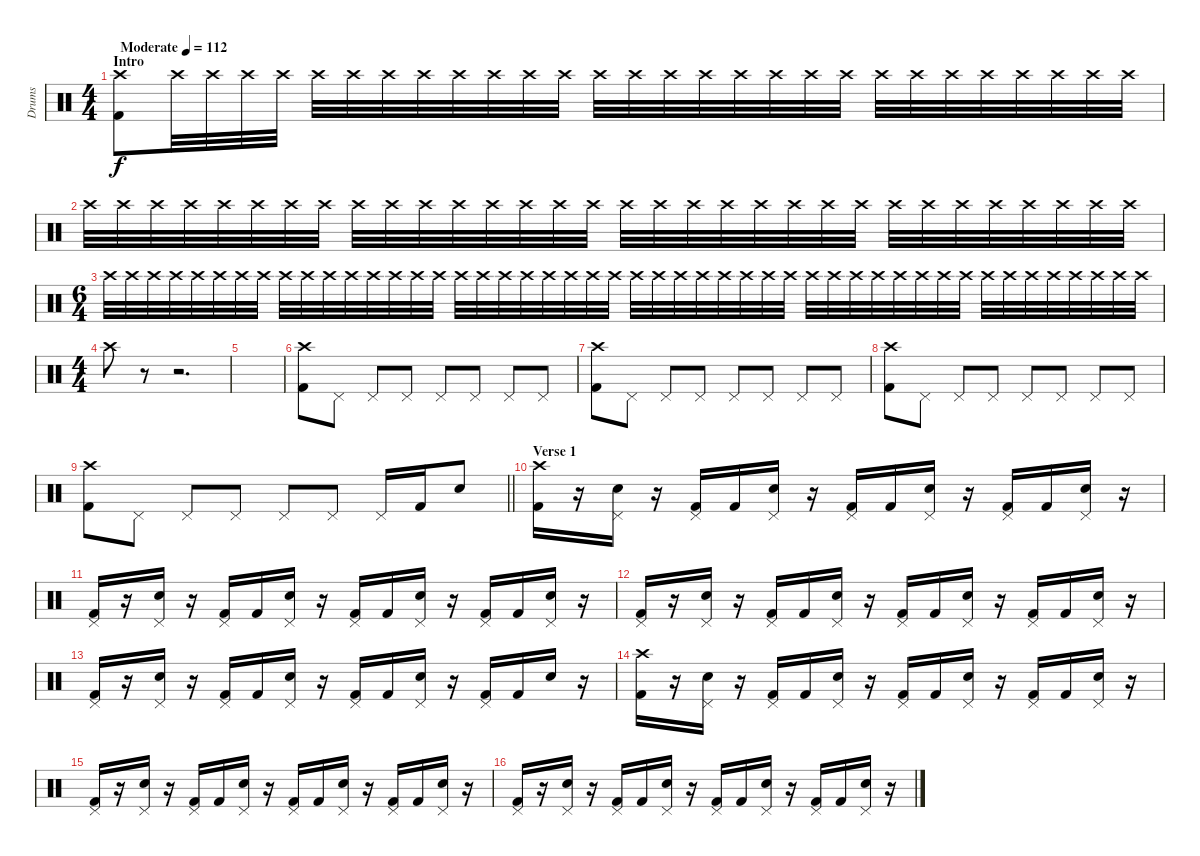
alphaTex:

\track ("Drums" "Drums") {instrument percussion}
\staff {score}
\articulation defaults
\ts (4 4)
\section ("" "Intro")
\tempo (112 "Moderate")
\clef neutral
\ks c
("Crash high (hit)" "Kick (hit) 2").8{dy f} "Crash high (hit)".32 "Crash high (hit)".32 "Crash high (hit)".32 "Crash high (hit)".32 "Crash high (hit)".32 "Crash high (hit)".32 "Crash high (hit)".32 "Crash high (hit)".32 "Crash high (hit)".32 "Crash high (hit)".32 "Crash high (hit)".32 "Crash high (hit)".32 "Crash high (hit)".32 "Crash high (hit)".32 "Crash high (hit)".32 "Crash high (hit)".32 "Crash high (hit)".32 "Crash high (hit)".32 "Crash high (hit)".32 "Crash high (hit)".32 "Crash high (hit)".32 "Crash high (hit)".32 "Crash high (hit)".32 "Crash high (hit)".32 "Crash high (hit)".32 "Crash high (hit)".32 "Crash high (hit)".32 "Crash high (hit)".32 |
"Crash high (hit)".32 "Crash high (hit)".32 "Crash high (hit)".32 "Crash high (hit)".32 "Crash high (hit)".32 "Crash high (hit)".32 "Crash high (hit)".32 "Crash high (hit)".32 "Crash high (hit)".32 "Crash high (hit)".32 "Crash high (hit)".32 "Crash high (hit)".32 "Crash high (hit)".32 "Crash high (hit)".32 "Crash high (hit)".32 "Crash high (hit)".32 "Crash high (hit)".32 "Crash high (hit)".32 "Crash high (hit)".32 "Crash high (hit)".32 "Crash high (hit)".32 "Crash high (hit)".32 "Crash high (hit)".32 "Crash high (hit)".32 "Crash high (hit)".32 "Crash high (hit)".32 "Crash high (hit)".32 "Crash high (hit)".32 "Crash high (hit)".32 "Crash high (hit)".32 "Crash high (hit)".32 "Crash high (hit)".32 |
\ts (6 4)
"Crash high (hit)".32 "Crash high (hit)".32 "Crash high (hit)".32 "Crash high (hit)".32 "Crash high (hit)".32 "Crash high (hit)".32 "Crash high (hit)".32 "Crash high (hit)".32 "Crash high (hit)".32 "Crash high (hit)".32 "Crash high (hit)".32 "Crash high (hit)".32 "Crash high (hit)".32 "Crash high (hit)".32 "Crash high (hit)".32 "Crash high (hit)".32 "Crash high (hit)".32 "Crash high (hit)".32 "Crash high (hit)".32 "Crash high (hit)".32 "Crash high (hit)".32 "Crash high (hit)".32 "Crash high (hit)".32 "Crash high (hit)".32 "Crash high (hit)".32 "Crash high (hit)".32 "Crash high (hit)".32 "Crash high (hit)".32 "Crash high (hit)".32 "Crash high (hit)".32 "Crash high (hit)".32 "Crash high (hit)".32 "Crash high (hit)".32 "Crash high (hit)".32 "Crash high (hit)".32 "Crash high (hit)".32 "Crash high (hit)".32 "Crash high (hit)".32 "Crash high (hit)".32 "Crash high (hit)".32 "Crash high (hit)".32 "Crash high (hit)".32 "Crash high (hit)".32 "Crash high (hit)".32 "Crash high (hit)".32 "Crash high (hit)".32 "Crash high (hit)".32 "Crash high (hit)".32 |
\ts (4 4)
"Crash high (hit)".8 r.8 r.2{d} |
|
("Crash high (hit)" "Kick (hit) 2").8 "Pedal Hi-Hat (hit)".8 "Pedal Hi-Hat (hit)".8 "Pedal Hi-Hat (hit)".8 "Pedal Hi-Hat (hit)".8 "Pedal Hi-Hat (hit)".8 "Pedal Hi-Hat (hit)".8 "Pedal Hi-Hat (hit)".8 |
("Crash high (hit)" "Kick (hit) 2").8 "Pedal Hi-Hat (hit)".8 "Pedal Hi-Hat (hit)".8 "Pedal Hi-Hat (hit)".8 "Pedal Hi-Hat (hit)".8 "Pedal Hi-Hat (hit)".8 "Pedal Hi-Hat (hit)".8 "Pedal Hi-Hat (hit)".8 |
("Crash high (hit)" "Kick (hit) 2").8 "Pedal Hi-Hat (hit)".8 "Pedal Hi-Hat (hit)".8 "Pedal Hi-Hat (hit)".8 "Pedal Hi-Hat (hit)".8 "Pedal Hi-Hat (hit)".8 "Pedal Hi-Hat (hit)".8 "Pedal Hi-Hat (hit)".8 |
\barLineRight lightlight
("Crash high (hit)" "Kick (hit) 2").8 "Pedal Hi-Hat (hit)".8 "Pedal Hi-Hat (hit)".8 "Pedal Hi-Hat (hit)".8 "Pedal Hi-Hat (hit)".8 "Pedal Hi-Hat (hit)".8 "Pedal Hi-Hat (hit)".16 "Kick (hit) 2".16 "Snare (hit) 2".8 |
\section ("" "Verse 1")
("Crash high (hit)" "Kick (hit) 2").16 r.16 ("Pedal Hi-Hat (hit)" "Snare (hit) 2").16 r.16 ("Pedal Hi-Hat (hit)" "Kick (hit) 2").16 "Kick (hit) 2".16 ("Pedal Hi-Hat (hit)" "Snare (hit) 2").16 r.16 ("Pedal Hi-Hat (hit)" "Kick (hit) 2").16 "Kick (hit) 2".16 ("Pedal Hi-Hat (hit)" "Snare (hit) 2").16 r.16 ("Pedal Hi-Hat (hit)" "Kick (hit) 2").16 "Kick (hit) 2".16 ("Pedal Hi-Hat (hit)" "Snare (hit) 2").16 r.16 |
("Pedal Hi-Hat (hit)" "Kick (hit) 2").16 r.16 ("Pedal Hi-Hat (hit)" "Snare (hit) 2").16 r.16 ("Pedal Hi-Hat (hit)" "Kick (hit) 2").16 "Kick (hit) 2".16 ("Pedal Hi-Hat (hit)" "Snare (hit) 2").16 r.16 ("Pedal Hi-Hat (hit)" "Kick (hit) 2").16 "Kick (hit) 2".16 ("Pedal Hi-Hat (hit)" "Snare (hit) 2").16 r.16 ("Pedal Hi-Hat (hit)" "Kick (hit) 2").16 "Kick (hit) 2".16 ("Pedal Hi-Hat (hit)" "Snare (hit) 2").16 r.16 |
("Pedal Hi-Hat (hit)" "Kick (hit) 2").16 r.16 ("Pedal Hi-Hat (hit)" "Snare (hit) 2").16 r.16 ("Pedal Hi-Hat (hit)" "Kick (hit) 2").16 "Kick (hit) 2".16 ("Pedal Hi-Hat (hit)" "Snare (hit) 2").16 r.16 ("Pedal Hi-Hat (hit)" "Kick (hit) 2").16 "Kick (hit) 2".16 ("Pedal Hi-Hat (hit)" "Snare (hit) 2").16 r.16 ("Pedal Hi-Hat (hit)" "Kick (hit) 2").16 "Kick (hit) 2".16 ("Pedal Hi-Hat (hit)" "Snare (hit) 2").16 r.16 |
("Pedal Hi-Hat (hit)" "Kick (hit) 2").16 r.16 ("Pedal Hi-Hat (hit)" "Snare (hit) 2").16 r.16 ("Pedal Hi-Hat (hit)" "Kick (hit) 2").16 "Kick (hit) 2".16 ("Pedal Hi-Hat (hit)" "Snare (hit) 2").16 r.16 ("Pedal Hi-Hat (hit)" "Kick (hit) 2").16 "Kick (hit) 2".16 ("Pedal Hi-Hat (hit)" "Snare (hit) 2").16 r.16 ("Pedal Hi-Hat (hit)" "Kick (hit) 2").16 "Kick (hit) 2".16 "Snare (hit) 2".16 r.16 |
("Crash high (hit)" "Kick (hit) 2").16 r.16 ("Pedal Hi-Hat (hit)" "Snare (hit) 2").16 r.16 ("Pedal Hi-Hat (hit)" "Kick (hit) 2").16 "Kick (hit) 2".16 ("Pedal Hi-Hat (hit)" "Snare (hit) 2").16 r.16 ("Pedal Hi-Hat (hit)" "Kick (hit) 2").16 "Kick (hit) 2".16 ("Pedal Hi-Hat (hit)" "Snare (hit) 2").16 r.16 ("Pedal Hi-Hat (hit)" "Kick (hit) 2").16 "Kick (hit) 2".16 ("Pedal Hi-Hat (hit)" "Snare (hit) 2").16 r.16 |
("Pedal Hi-Hat (hit)" "Kick (hit) 2").16 r.16 ("Pedal Hi-Hat (hit)" "Snare (hit) 2").16 r.16 ("Pedal Hi-Hat (hit)" "Kick (hit) 2").16 "Kick (hit) 2".16 ("Pedal Hi-Hat (hit)" "Snare (hit) 2").16 r.16 ("Pedal Hi-Hat (hit)" "Kick (hit) 2").16 "Kick (hit) 2".16 ("Pedal Hi-Hat (hit)" "Snare (hit) 2").16 r.16 ("Pedal Hi-Hat (hit)" "Kick (hit) 2").16 "Kick (hit) 2".16 ("Pedal Hi-Hat (hit)" "Snare (hit) 2").16 r.16 |
("Pedal Hi-Hat (hit)" "Kick (hit) 2").16 r.16 ("Pedal Hi-Hat (hit)" "Snare (hit) 2").16 r.16 ("Pedal Hi-Hat (hit)" "Kick (hit) 2").16 "Kick (hit) 2".16 ("Pedal Hi-Hat (hit)" "Snare (hit) 2").16 r.16 ("Pedal Hi-Hat (hit)" "Kick (hit) 2").16 "Kick (hit) 2".16 ("Pedal Hi-Hat (hit)" "Snare (hit) 2").16 r.16 ("Pedal Hi-Hat (hit)" "Kick (hit) 2").16 "Kick (hit) 2".16 ("Pedal Hi-Hat (hit)" "Snare (hit) 2").16 r.16
